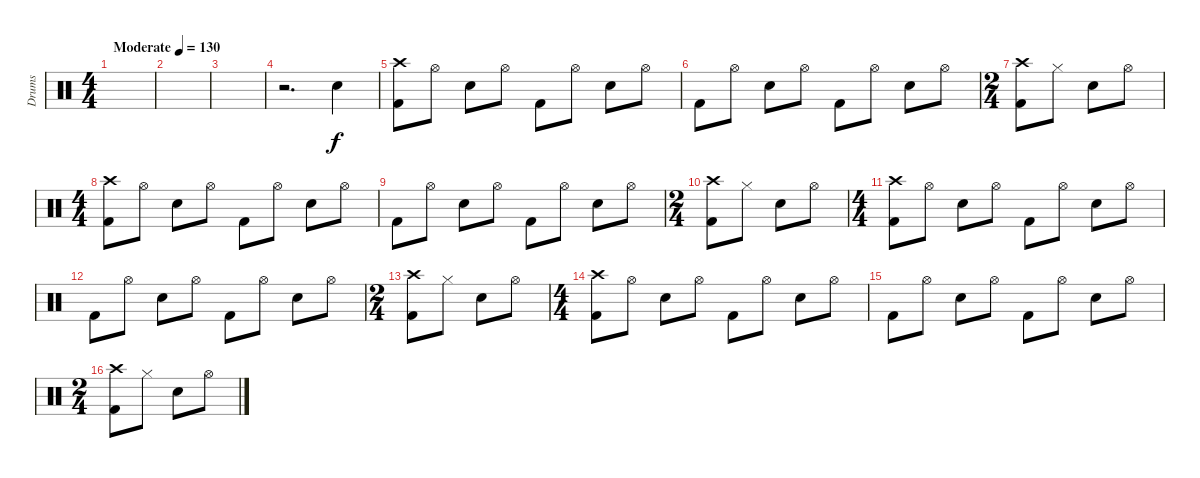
\track ("Drums" "Drums") {instrument percussion}
\staff {score}
\articulation defaults
\ts (4 4)
\tempo (130 "Moderate")
\clef neutral
\ks c
|
|
|
r.2{d} "Electric Snare (hit)".4 |
("Crash high (hit)" "Kick (hit) 2").8 "Hi-Hat (open)".8 "Electric Snare (hit)".8 "Hi-Hat (open)".8 "Kick (hit) 2".8 "Hi-Hat (open)".8 "Electric Snare (hit)".8 "Hi-Hat (open)".8 |
"Kick (hit) 2".8 "Hi-Hat (open)".8 "Electric Snare (hit)".8 "Hi-Hat (open)".8 "Kick (hit) 2".8 "Hi-Hat (open)".8 "Electric Snare (hit)".8 "Hi-Hat (open)".8 |
\ts (2 4)
("Crash high (hit)" "Kick (hit) 2").8 "Hi-Hat (closed)".8 "Electric Snare (hit)".8 "Hi-Hat (open)".8 |
\ts (4 4)
("Crash high (hit)" "Kick (hit) 2").8 "Hi-Hat (open)".8 "Electric Snare (hit)".8 "Hi-Hat (open)".8 "Kick (hit) 2".8 "Hi-Hat (open)".8 "Electric Snare (hit)".8 "Hi-Hat (open)".8 |
"Kick (hit) 2".8 "Hi-Hat (open)".8 "Electric Snare (hit)".8 "Hi-Hat (open)".8 "Kick (hit) 2".8 "Hi-Hat (open)".8 "Electric Snare (hit)".8 "Hi-Hat (open)".8 |
\ts (2 4)
("Crash high (hit)" "Kick (hit) 2").8 "Hi-Hat (closed)".8 "Electric Snare (hit)".8 "Hi-Hat (open)".8 |
\ts (4 4)
("Crash high (hit)" "Kick (hit) 2").8 "Hi-Hat (open)".8 "Electric Snare (hit)".8 "Hi-Hat (open)".8 "Kick (hit) 2".8 "Hi-Hat (open)".8 "Electric Snare (hit)".8 "Hi-Hat (open)".8 |
"Kick (hit) 2".8 "Hi-Hat (open)".8 "Electric Snare (hit)".8 "Hi-Hat (open)".8 "Kick (hit) 2".8 "Hi-Hat (open)".8 "Electric Snare (hit)".8 "Hi-Hat (open)".8 |
\ts (2 4)
("Crash high (hit)" "Kick (hit) 2").8 "Hi-Hat (closed)".8 "Electric Snare (hit)".8 "Hi-Hat (open)".8 |
\ts (4 4)
("Crash high (hit)" "Kick (hit) 2").8 "Hi-Hat (open)".8 "Electric Snare (hit)".8 "Hi-Hat (open)".8 "Kick (hit) 2".8 "Hi-Hat (open)".8 "Electric Snare (hit)".8 "Hi-Hat (open)".8 |
"Kick (hit) 2".8 "Hi-Hat (open)".8 "Electric Snare (hit)".8 "Hi-Hat (open)".8 "Kick (hit) 2".8 "Hi-Hat (open)".8 "Electric Snare (hit)".8 "Hi-Hat (open)".8 |
\ts (2 4)
("Crash high (hit)" "Kick (hit) 2").8 "Hi-Hat (closed)".8 "Electric Snare (hit)".8 "Hi-Hat (open)".8
